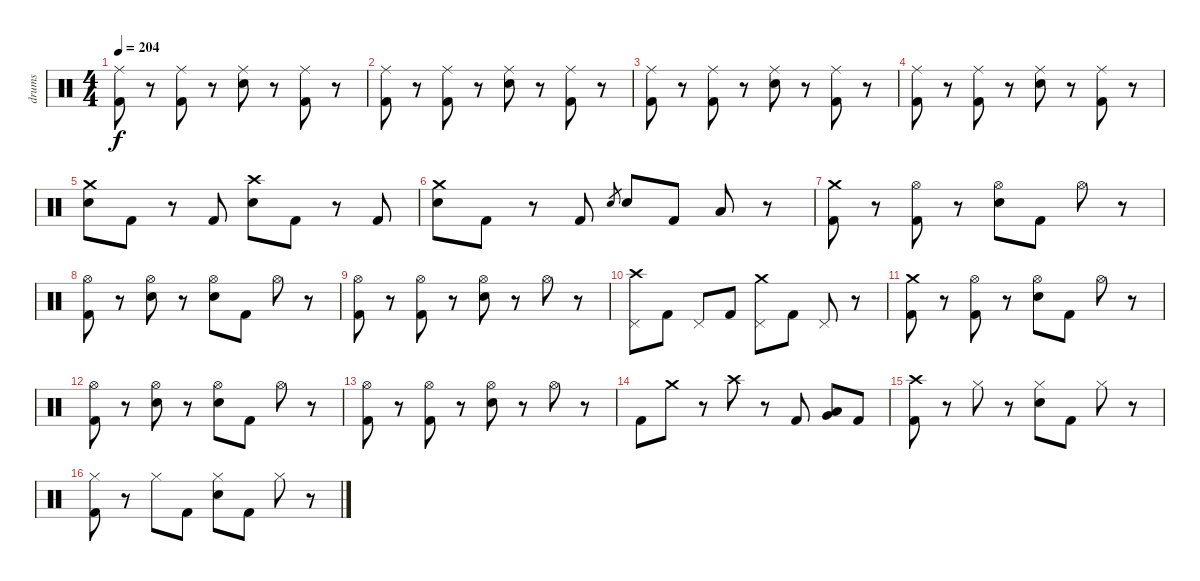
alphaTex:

\track ("drums" "drums") {instrument percussion}
\staff {score}
\articulation defaults
\ts (4 4)
\tempo 204
\clef neutral
\ks c
("Ride (middle)" "Kick (hit) 2").8{dy f} r.8 ("Ride (middle)" "Kick (hit) 2").8 r.8 ("Ride (middle)" "Snare (hit) 2").8 r.8 ("Ride (middle)" "Kick (hit) 2").8 r.8 |
("Ride (middle)" "Kick (hit) 2").8 r.8 ("Ride (middle)" "Kick (hit) 2").8 r.8 ("Ride (middle)" "Snare (hit) 2").8 r.8 ("Ride (middle)" "Kick (hit) 2").8 r.8 |
("Ride (middle)" "Kick (hit) 2").8 r.8 ("Ride (middle)" "Kick (hit) 2").8 r.8 ("Ride (middle)" "Snare (hit) 2").8 r.8 ("Ride (middle)" "Kick (hit) 2").8 r.8 |
("Ride (middle)" "Kick (hit) 2").8 r.8 ("Ride (middle)" "Kick (hit) 2").8 r.8 ("Ride (middle)" "Snare (hit) 2").8 r.8 ("Ride (middle)" "Kick (hit) 2").8 r.8 |
("Crash medium (hit)" "Snare (hit) 2").8 "Kick (hit) 2".8 r.8 "Kick (hit) 2".8 ("Crash high (hit)" "Snare (hit) 2").8 "Kick (hit) 2".8 r.8 "Kick (hit) 2".8 |
("Crash medium (hit)" "Snare (hit) 2").8 "Kick (hit) 2".8 r.8 "Kick (hit) 2".8 "Snare (hit) 2".8{gr} "Snare (hit) 2".8 "Kick (hit) 2".8 "Low Floor Tom (hit)".8 r.8 |
("Crash medium (hit)" "Kick (hit) 2").8 r.8 ("Hi-Hat (open)" "Kick (hit) 2").8 r.8 ("Hi-Hat (open)" "Snare (hit) 2").8 "Kick (hit) 2".8 "Hi-Hat (open)".8 r.8 |
("Hi-Hat (open)" "Kick (hit) 2").8 r.8 ("Hi-Hat (open)" "Snare (hit) 2").8 r.8 ("Hi-Hat (open)" "Snare (hit) 2").8 "Kick (hit) 2".8 "Hi-Hat (open)".8 r.8 |
("Hi-Hat (open)" "Kick (hit) 2").8 r.8 ("Hi-Hat (open)" "Kick (hit) 2").8 r.8 ("Hi-Hat (open)" "Snare (hit) 2").8 r.8 "Hi-Hat (open)".8 r.8 |
("Crash high (hit)" "Pedal Hi-Hat (hit)").8 "Kick (hit) 2".8 "Pedal Hi-Hat (hit)".8 "Kick (hit) 2".8 ("Crash medium (hit)" "Pedal Hi-Hat (hit)").8 "Kick (hit) 2".8 "Pedal Hi-Hat (hit)".8 r.8 |
("Crash medium (hit)" "Kick (hit) 2").8 r.8 ("Hi-Hat (open)" "Kick (hit) 2").8 r.8 ("Hi-Hat (open)" "Snare (hit) 2").8 "Kick (hit) 2".8 "Hi-Hat (open)".8 r.8 |
("Hi-Hat (open)" "Kick (hit) 2").8 r.8 ("Hi-Hat (open)" "Snare (hit) 2").8 r.8 ("Hi-Hat (open)" "Snare (hit) 2").8 "Kick (hit) 2".8 "Hi-Hat (open)".8 r.8 |
("Hi-Hat (open)" "Kick (hit) 2").8 r.8 ("Hi-Hat (open)" "Kick (hit) 2").8 r.8 ("Hi-Hat (open)" "Snare (hit) 2").8 r.8 "Hi-Hat (open)".8 r.8 |
"Kick (hit) 2".8 "Crash medium (hit)".8 r.8 "Crash high (hit)".8 r.8 "Kick (hit) 2".8 ("Very Low Tom (hit)" "Low Floor Tom (hit)").8 "Kick (hit) 2".8 |
("Crash high (hit)" "Kick (hit) 2").8 r.8 "Hi-Hat (closed)".8 r.8 ("Hi-Hat (closed)" "Snare (hit) 2").8 "Kick (hit) 2".8 "Hi-Hat (closed)".8 r.8 |
("Hi-Hat (closed)" "Kick (hit) 2").8 r.8 "Hi-Hat (closed)".8 "Kick (hit) 2".8 ("Hi-Hat (closed)" "Snare (hit) 2").8 "Kick (hit) 2".8 "Hi-Hat (closed)".8 r.8
